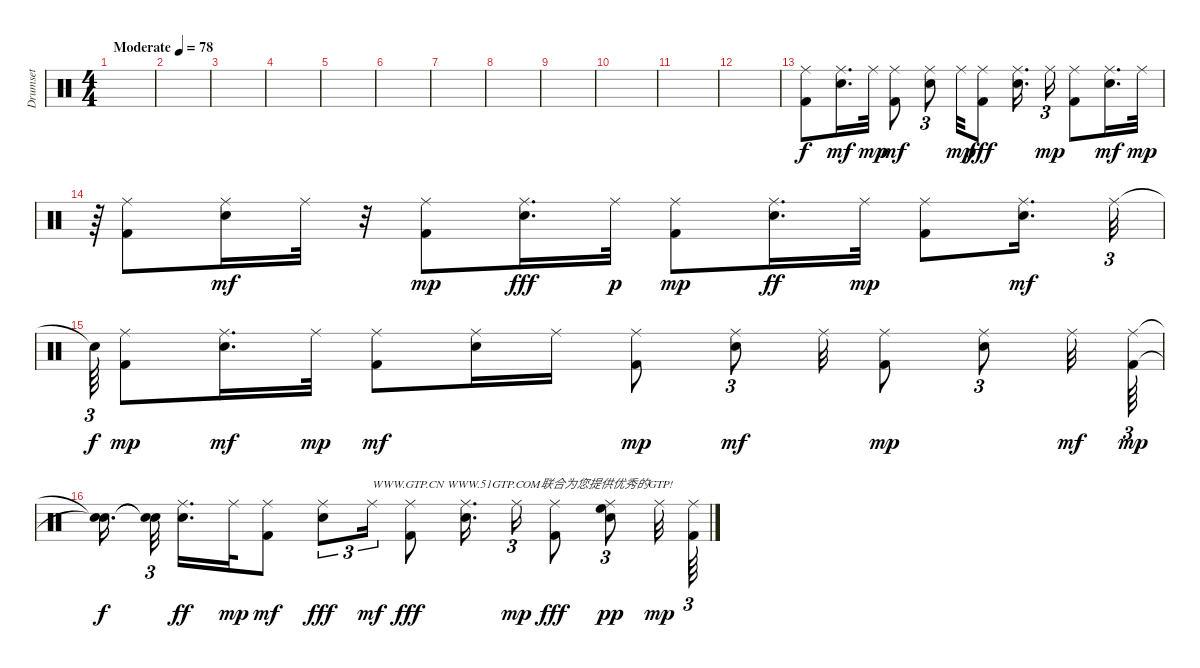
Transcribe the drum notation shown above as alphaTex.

\track ("Drumset" "Drumset") {instrument percussion}
\staff {score}
\articulation defaults
\ts (4 4)
\tempo (78 "Moderate")
\clef neutral
\ks c
|
|
|
|
|
|
|
|
|
|
|
|
("Kick (hit) 2" "Ride (middle)").8 ("Ride (middle)" "Snare (hit) 2").16{d dy mf} "Ride (middle)".32{dy mp} ("Kick (hit) 2" "Ride (middle)").8{dy mf} ("Snare (hit) 2" "Ride (middle)").8{tu (3 2)} "Ride (middle)".32{dy mp} ("Ride (middle)" "Kick (hit) 2").8{dy fff} ("Ride (middle)" "Snare (hit) 2").16{d} "Ride (middle)".16{tu (3 2) dy mp} ("Kick (hit) 2" "Ride (middle)").8 ("Snare (hit) 2" "Ride (middle)").16{d dy mf} "Ride (middle)".32{dy mp} |
r.64{tu (3 2)} ("Kick (hit) 2" "Ride (middle)").8 ("Snare (hit) 2" "Ride (middle)").16{dy mf} "Ride (middle)".32 r.32 ("Kick (hit) 2" "Ride (middle)").8{dy mp} ("Ride (middle)" "Snare (hit) 2").16{d dy fff} "Ride (middle)".32{dy p} ("Kick (hit) 2" "Ride (middle)").8{dy mp} ("Snare (hit) 2" "Ride (middle)").16{d dy ff} "Ride (middle)".32{dy mp} ("Kick (hit) 2" "Ride (middle)").8 ("Snare (hit) 2" "Ride (middle)").16{d dy mf} "Ride (middle)".32{tu (3 2)} |
"Snare (hit)"{t}.64{tu (3 2) dy f} ("Kick (hit) 2" "Ride (middle)").8{dy mp} ("Snare (hit) 2" "Ride (middle)").16{d dy mf} "Ride (middle)".32{dy mp} ("Kick (hit) 2" "Ride (middle)").8{dy mf} ("Snare (hit) 2" "Ride (middle)").16 "Ride (middle)".16 ("Kick (hit) 2" "Ride (middle)").8{dy mp} ("Snare (hit) 2" "Ride (middle)").8{tu (3 2) dy mf} "Ride (middle)".32 ("Kick (hit) 2" "Ride (middle)").8{dy mp} ("Snare (hit) 2" "Ride (middle)").8{tu (3 2)} "Ride (middle)".32{dy mf} ("Kick (hit) 2" "Ride (middle)").64{tu (3 2) dy mp} |
("Snare (hit)"{t} "Snare (hit)"{t}).16{d dy f beam splitsecondary} ("Snare (hit)"{t} "Snare (hit)"{t}).32{tu (3 2) beam splitsecondary} ("Ride (middle)" "Snare (hit) 2").16{d dy ff} "Ride (middle)".32{dy mp} ("Kick (hit) 2" "Ride (middle)").8{dy mf} ("Snare (hit) 2" "Ride (middle)").8{tu (3 2) dy fff} "Ride (middle)".16{tu (3 2) txt "WWW.GTP.CN WWW.51GTP.COM联合为您提供优秀的GTP!" dy mf} ("Ride (middle)" "Kick (hit) 2").8{dy fff} ("Ride (middle)" "Snare (hit) 2").16{d} "Ride (middle)".16{tu (3 2) dy mp} ("Ride (middle)" "Kick (hit) 2").8{dy fff} ("Ride (middle)" "Snare (hit) 2" "High Floor Tom (hit)").8{tu (3 2) dy pp} "Ride (middle)".32{dy mp} ("Kick (hit) 2" "Ride (middle)").64{tu (3 2)}
